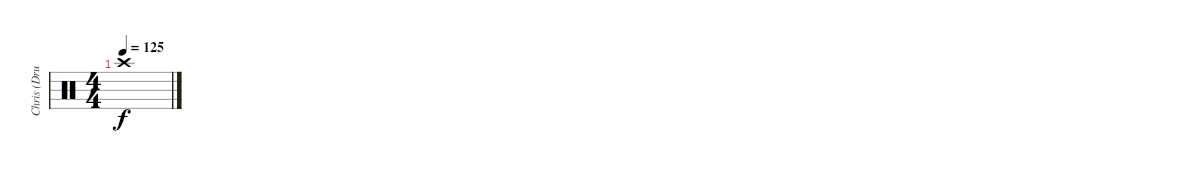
\track ("Chris (Drums)" "Chris (Dru") {instrument percussion}
\staff {score}
\articulation defaults
\ts (4 4)
\tempo 125
\clef neutral
\ks c "Crash high (hit)".1{dy f}
